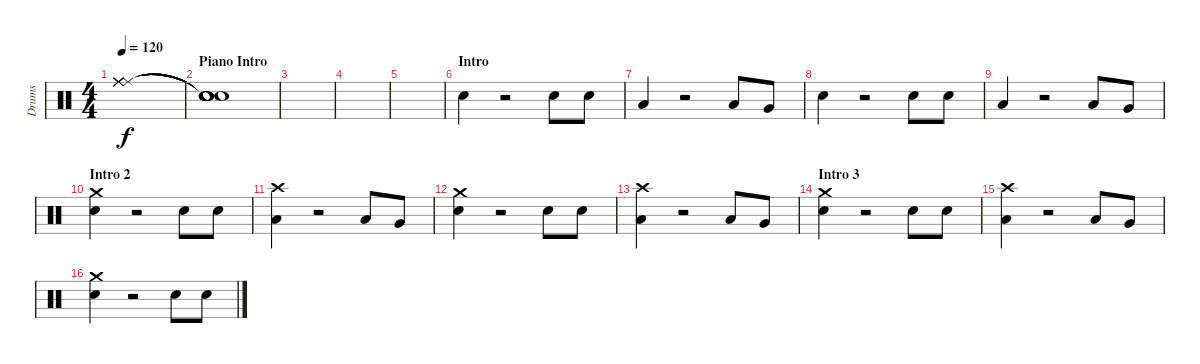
\track ("Drums" "Drums") {instrument percussion}
\staff {score}
\articulation defaults
\ts (4 4)
\tempo 120
\clef neutral
\ks c
("Ride (middle)" "Ride (middle)" "Ride (middle)" "Ride (middle)" "Ride (middle)" "Ride (middle)").1{dy f} |
\section ("" "Piano Intro")
("Snare (hit)"{t} "Snare (hit)"{t} "Snare (hit)"{t} "Snare (hit)"{t} "Snare (hit)"{t} "Snare (hit)"{t}).1 |
|
|
|
\section ("" "Intro")
"Snare (hit) 2".4{volume 16} r.2 "Snare (hit) 2".8 "Snare (hit) 2".8 |
"Low Floor Tom (hit)".4 r.2 "Low Tom (hit)".8 "Very Low Tom (hit)".8 |
"Snare (hit) 2".4 r.2 "Snare (hit) 2".8 "Snare (hit) 2".8 |
"Low Floor Tom (hit)".4 r.2 "Low Tom (hit)".8 "Very Low Tom (hit)".8 |
\section ("" "Intro 2")
("Crash medium (hit)" "Snare (hit) 2").4 r.2 "Snare (hit) 2".8 "Snare (hit) 2".8 |
("Crash high (hit)" "Low Floor Tom (hit)").4 r.2 "Low Tom (hit)".8 "Very Low Tom (hit)".8 |
("Crash medium (hit)" "Snare (hit) 2").4 r.2 "Snare (hit) 2".8 "Snare (hit) 2".8 |
("Crash high (hit)" "Low Floor Tom (hit)").4 r.2 "Low Tom (hit)".8 "Very Low Tom (hit)".8 |
\section ("" "Intro 3")
("Crash medium (hit)" "Snare (hit) 2").4 r.2 "Snare (hit) 2".8 "Snare (hit) 2".8 |
("Crash high (hit)" "Low Floor Tom (hit)").4 r.2 "Low Tom (hit)".8 "Very Low Tom (hit)".8 |
("Crash medium (hit)" "Snare (hit) 2").4 r.2 "Snare (hit) 2".8 "Snare (hit) 2".8
